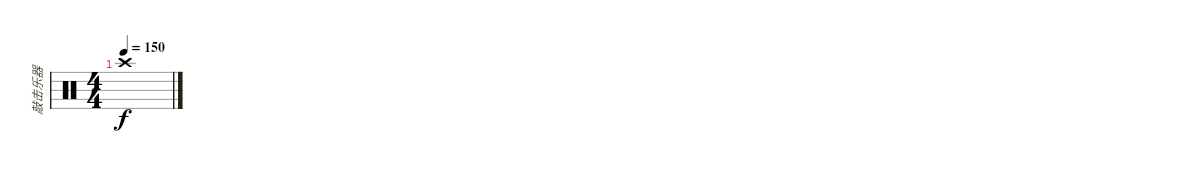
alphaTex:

\track ("敲击乐器" "敲击乐器") {instrument percussion}
\staff {score}
\articulation defaults
\ts (4 4)
\tempo 150
\clef neutral
\ks c "Crash high (hit)".1{dy f}
